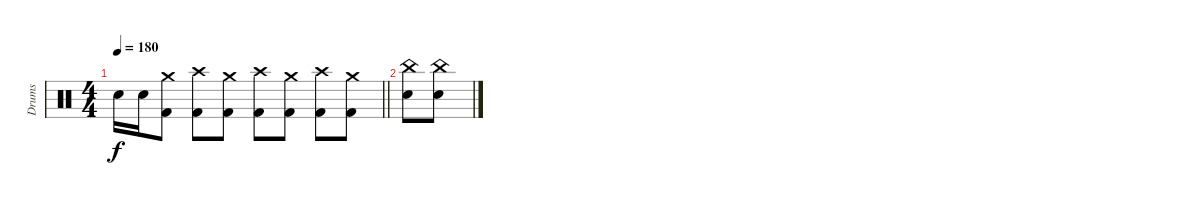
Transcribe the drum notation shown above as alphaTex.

\track ("Drums" "Drums") {instrument percussion}
\staff {score}
\articulation defaults
\ts (4 4)
\tempo 180
\clef neutral
\barLineRight lightlight
\ks c "Electric Snare (hit)".16{dy f} "Electric Snare (hit)".16
("Crash medium (hit)" "Kick (hit) 2").8 ("Crash high (hit)" "Kick (hit) 2").8 ("Crash medium (hit)" "Kick (hit) 2").8 ("Crash high (hit)" "Kick (hit) 2").8 ("Crash medium (hit)" "Kick (hit) 2").8 ("Crash high (hit)" "Kick (hit) 2").8 ("Crash medium (hit)" "Kick (hit) 2").8 |
("China (hit)" "Electric Snare (hit)").8 ("China (hit)" "Electric Snare (hit)").8
